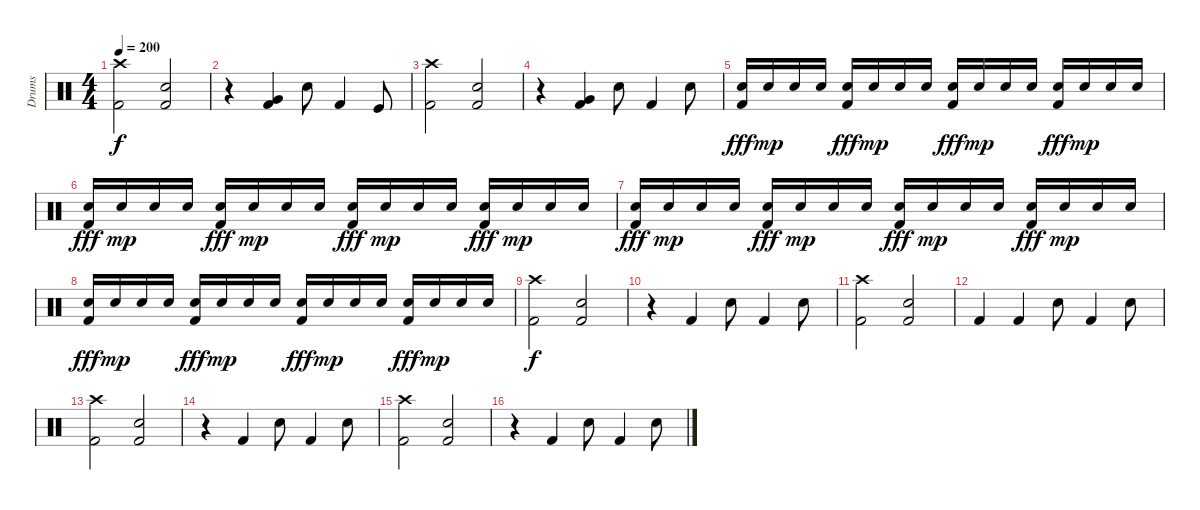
\track ("Drums" "Drums") {instrument percussion}
\staff {score}
\articulation defaults
\ts (4 4)
\tempo 200
\clef neutral
\ks c
("Crash high (hit)" "Kick (hit) 2").2{dy f} ("Snare (hit) 2" "Kick (hit) 2").2 |
r.4 ("Very Low Tom (hit)" "Kick (hit) 2").4 "Snare (hit) 2".8 "Kick (hit) 2".4 "Kick (hit)".8 |
("Crash high (hit)" "Kick (hit) 2").2 ("Snare (hit) 2" "Kick (hit) 2").2 |
r.4 ("Very Low Tom (hit)" "Kick (hit) 2").4 "Snare (hit) 2".8 "Kick (hit) 2".4 "Snare (hit) 2".8 |
("Snare (hit) 2" "Kick (hit) 2").16{dy fff} "Snare (hit) 2".16{dy mp} "Snare (hit) 2".16 "Snare (hit) 2".16 ("Snare (hit) 2" "Kick (hit) 2").16{dy fff} "Snare (hit) 2".16{dy mp} "Snare (hit) 2".16 "Snare (hit) 2".16 ("Snare (hit) 2" "Kick (hit) 2").16{dy fff} "Snare (hit) 2".16{dy mp} "Snare (hit) 2".16 "Snare (hit) 2".16 ("Snare (hit) 2" "Kick (hit) 2").16{dy fff} "Snare (hit) 2".16{dy mp} "Snare (hit) 2".16 "Snare (hit) 2".16 |
("Snare (hit) 2" "Kick (hit) 2").16{dy fff} "Snare (hit) 2".16{dy mp} "Snare (hit) 2".16 "Snare (hit) 2".16 ("Snare (hit) 2" "Kick (hit) 2").16{dy fff} "Snare (hit) 2".16{dy mp} "Snare (hit) 2".16 "Snare (hit) 2".16 ("Snare (hit) 2" "Kick (hit) 2").16{dy fff} "Snare (hit) 2".16{dy mp} "Snare (hit) 2".16 "Snare (hit) 2".16 ("Snare (hit) 2" "Kick (hit) 2").16{dy fff} "Snare (hit) 2".16{dy mp} "Snare (hit) 2".16 "Snare (hit) 2".16 |
("Snare (hit) 2" "Kick (hit) 2").16{dy fff} "Snare (hit) 2".16{dy mp} "Snare (hit) 2".16 "Snare (hit) 2".16 ("Snare (hit) 2" "Kick (hit) 2").16{dy fff} "Snare (hit) 2".16{dy mp} "Snare (hit) 2".16 "Snare (hit) 2".16 ("Snare (hit) 2" "Kick (hit) 2").16{dy fff} "Snare (hit) 2".16{dy mp} "Snare (hit) 2".16 "Snare (hit) 2".16 ("Snare (hit) 2" "Kick (hit) 2").16{dy fff} "Snare (hit) 2".16{dy mp} "Snare (hit) 2".16 "Snare (hit) 2".16 |
("Snare (hit) 2" "Kick (hit) 2").16{dy fff} "Snare (hit) 2".16{dy mp} "Snare (hit) 2".16 "Snare (hit) 2".16 ("Snare (hit) 2" "Kick (hit) 2").16{dy fff} "Snare (hit) 2".16{dy mp} "Snare (hit) 2".16 "Snare (hit) 2".16 ("Snare (hit) 2" "Kick (hit) 2").16{dy fff} "Snare (hit) 2".16{dy mp} "Snare (hit) 2".16 "Snare (hit) 2".16 ("Snare (hit) 2" "Kick (hit) 2").16{dy fff} "Snare (hit) 2".16{dy mp} "Snare (hit) 2".16 "Snare (hit) 2".16 |
("Crash high (hit)" "Kick (hit) 2").2{dy f} ("Snare (hit) 2" "Kick (hit) 2").2 |
r.4 "Kick (hit) 2".4 "Snare (hit) 2".8 "Kick (hit) 2".4 "Snare (hit) 2".8 |
("Crash high (hit)" "Kick (hit) 2").2 ("Snare (hit) 2" "Kick (hit) 2").2 |
"Kick (hit) 2".4 "Kick (hit) 2".4 "Snare (hit) 2".8 "Kick (hit) 2".4 "Snare (hit) 2".8 |
("Crash high (hit)" "Kick (hit) 2").2 ("Snare (hit) 2" "Kick (hit) 2").2 |
r.4 "Kick (hit) 2".4 "Snare (hit) 2".8 "Kick (hit) 2".4 "Snare (hit) 2".8 |
("Crash high (hit)" "Kick (hit) 2").2 ("Snare (hit) 2" "Kick (hit) 2").2 |
r.4 "Kick (hit) 2".4 "Snare (hit) 2".8 "Kick (hit) 2".4 "Snare (hit) 2".8
